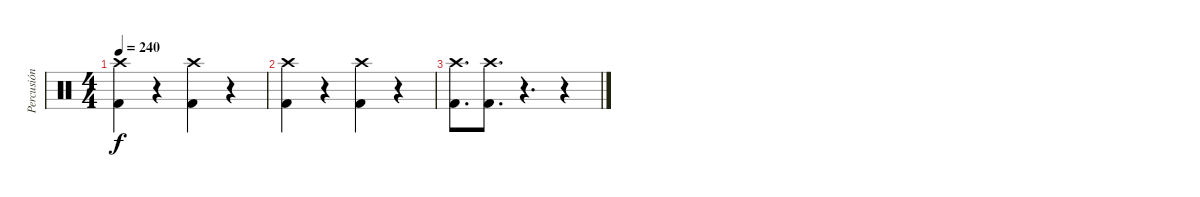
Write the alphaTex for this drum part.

\track ("Percusión" "Percusión") {instrument percussion}
\staff {score}
\articulation defaults
\ts (4 4)
\tempo 240
\clef neutral
\ks c
("Kick (hit) 2" "Crash high (hit)").4{dy f} r.4 ("Kick (hit) 2" "Crash high (hit)").4 r.4 |
("Kick (hit) 2" "Crash high (hit)").4 r.4 ("Kick (hit) 2" "Crash high (hit)").4 r.4 |
("Kick (hit) 2" "Crash high (hit)").8{d} ("Kick (hit) 2" "Crash high (hit)").8{d} r.4{d} r.4
